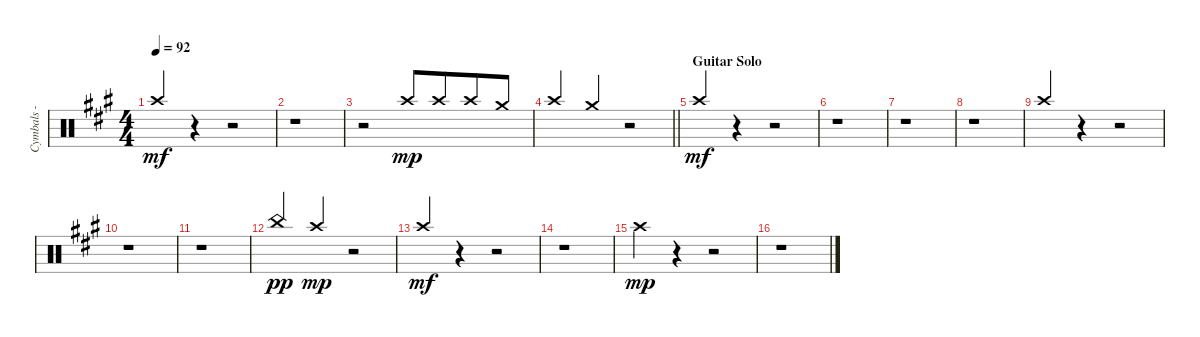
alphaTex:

\track ("Cymbals - crash" "Cymbals - ") {instrument percussion}
\staff {score}
\articulation defaults
\ts (4 4)
\tempo 92
\clef neutral
\ks f#minor "Crash high (hit)".4{dy mf beam Up}
r.4 r.2 |
r.1 |
r.2 "Crash high (hit)".8{dy mp beam Up} "Crash high (hit)".8{beam Up beam merge} "Crash high (hit)".8{beam Up} "Crash medium (hit)".8{beam Up} |
\barLineRight lightlight "Crash high (hit)".4{beam Up} "Crash medium (hit)".4{beam Up}
r.2 |
\section ("" "Guitar Solo")
"Crash high (hit)".4{dy mf beam Up} r.4 r.2 |
r.1 |
r.1 |
r.1 |
"Crash high (hit)".4{beam Up} r.4 r.2 |
r.1 |
r.1 |
"China (hit)".4{dy pp beam Up} "Crash high (hit)".4{dy mp beam Up} r.2 |
"Crash high (hit)".4{dy mf beam Up} r.4 r.2 |
r.1 |
"Crash high (hit)".4{dy mp} r.4 r.2 |
r.1
